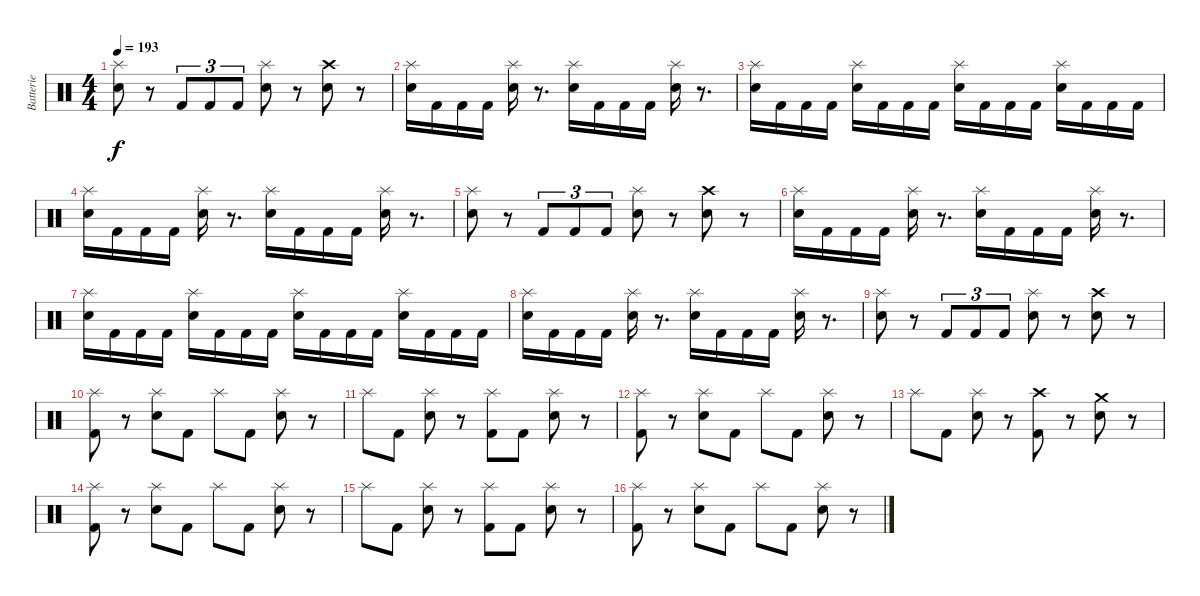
\track ("Batterie" "Batterie") {instrument percussion}
\staff {score}
\articulation defaults
\ts (4 4)
\tempo 193
\clef neutral
\ks c
("Electric Snare (hit)" "Splash (hit)").8{dy f} r.8 "Kick (hit) 2".8{tu (3 2)} "Kick (hit) 2".8{tu (3 2)} "Kick (hit) 2".8{tu (3 2)} ("Electric Snare (hit)" "Splash (hit)").8 r.8 ("Electric Snare (hit)" "Crash high (hit)").8 r.8 |
("Electric Snare (hit)" "Splash (hit)").16 "Kick (hit) 2".16 "Kick (hit) 2".16 "Kick (hit) 2".16 ("Electric Snare (hit)" "Splash (hit)").16 r.8{d} ("Electric Snare (hit)" "Splash (hit)").16 "Kick (hit) 2".16 "Kick (hit) 2".16 "Kick (hit) 2".16 ("Electric Snare (hit)" "Splash (hit)").16 r.8{d} |
("Electric Snare (hit)" "Splash (hit)").16 "Kick (hit) 2".16 "Kick (hit) 2".16 "Kick (hit) 2".16 ("Electric Snare (hit)" "Splash (hit)").16 "Kick (hit) 2".16 "Kick (hit) 2".16 "Kick (hit) 2".16 ("Electric Snare (hit)" "Splash (hit)").16 "Kick (hit) 2".16 "Kick (hit) 2".16 "Kick (hit) 2".16 ("Electric Snare (hit)" "Splash (hit)").16 "Kick (hit) 2".16 "Kick (hit) 2".16 "Kick (hit) 2".16 |
("Electric Snare (hit)" "Splash (hit)").16 "Kick (hit) 2".16 "Kick (hit) 2".16 "Kick (hit) 2".16 ("Electric Snare (hit)" "Splash (hit)").16 r.8{d} ("Electric Snare (hit)" "Splash (hit)").16 "Kick (hit) 2".16 "Kick (hit) 2".16 "Kick (hit) 2".16 ("Electric Snare (hit)" "Splash (hit)").16 r.8{d} |
("Electric Snare (hit)" "Splash (hit)").8 r.8 "Kick (hit) 2".8{tu (3 2)} "Kick (hit) 2".8{tu (3 2)} "Kick (hit) 2".8{tu (3 2)} ("Electric Snare (hit)" "Splash (hit)").8 r.8 ("Electric Snare (hit)" "Crash high (hit)").8 r.8 |
("Electric Snare (hit)" "Splash (hit)").16 "Kick (hit) 2".16 "Kick (hit) 2".16 "Kick (hit) 2".16 ("Electric Snare (hit)" "Splash (hit)").16 r.8{d} ("Electric Snare (hit)" "Splash (hit)").16 "Kick (hit) 2".16 "Kick (hit) 2".16 "Kick (hit) 2".16 ("Electric Snare (hit)" "Splash (hit)").16 r.8{d} |
("Electric Snare (hit)" "Splash (hit)").16 "Kick (hit) 2".16 "Kick (hit) 2".16 "Kick (hit) 2".16 ("Electric Snare (hit)" "Splash (hit)").16 "Kick (hit) 2".16 "Kick (hit) 2".16 "Kick (hit) 2".16 ("Electric Snare (hit)" "Splash (hit)").16 "Kick (hit) 2".16 "Kick (hit) 2".16 "Kick (hit) 2".16 ("Electric Snare (hit)" "Splash (hit)").16 "Kick (hit) 2".16 "Kick (hit) 2".16 "Kick (hit) 2".16 |
("Electric Snare (hit)" "Splash (hit)").16 "Kick (hit) 2".16 "Kick (hit) 2".16 "Kick (hit) 2".16 ("Electric Snare (hit)" "Splash (hit)").16 r.8{d} ("Electric Snare (hit)" "Splash (hit)").16 "Kick (hit) 2".16 "Kick (hit) 2".16 "Kick (hit) 2".16 ("Electric Snare (hit)" "Splash (hit)").16 r.8{d} |
("Electric Snare (hit)" "Splash (hit)").8 r.8 "Kick (hit) 2".8{tu (3 2)} "Kick (hit) 2".8{tu (3 2)} "Kick (hit) 2".8{tu (3 2)} ("Electric Snare (hit)" "Splash (hit)").8 r.8 ("Electric Snare (hit)" "Crash high (hit)").8 r.8 |
("Kick (hit) 2" "Splash (hit)").8 r.8 ("Electric Snare (hit)" "Splash (hit)").8 "Kick (hit) 2".8 "Splash (hit)".8 "Kick (hit) 2".8 ("Electric Snare (hit)" "Splash (hit)").8 r.8 |
"Splash (hit)".8 "Kick (hit) 2".8 ("Electric Snare (hit)" "Splash (hit)").8 r.8 ("Kick (hit) 2" "Splash (hit)").8 "Kick (hit) 2".8 ("Electric Snare (hit)" "Splash (hit)").8 r.8 |
("Kick (hit) 2" "Splash (hit)").8 r.8 ("Electric Snare (hit)" "Splash (hit)").8 "Kick (hit) 2".8 "Splash (hit)".8 "Kick (hit) 2".8 ("Electric Snare (hit)" "Splash (hit)").8 r.8 |
"Splash (hit)".8 "Kick (hit) 2".8 ("Electric Snare (hit)" "Splash (hit)").8 r.8 ("Kick (hit) 2" "Crash high (hit)").8 r.8 ("Electric Snare (hit)" "Crash medium (hit)").8 r.8 |
("Kick (hit) 2" "Splash (hit)").8 r.8 ("Electric Snare (hit)" "Splash (hit)").8 "Kick (hit) 2".8 "Splash (hit)".8 "Kick (hit) 2".8 ("Electric Snare (hit)" "Splash (hit)").8 r.8 |
"Splash (hit)".8 "Kick (hit) 2".8 ("Electric Snare (hit)" "Splash (hit)").8 r.8 ("Kick (hit) 2" "Splash (hit)").8 "Kick (hit) 2".8 ("Electric Snare (hit)" "Splash (hit)").8 r.8 |
("Kick (hit) 2" "Splash (hit)").8 r.8 ("Electric Snare (hit)" "Splash (hit)").8 "Kick (hit) 2".8 "Splash (hit)".8 "Kick (hit) 2".8 ("Electric Snare (hit)" "Splash (hit)").8 r.8
